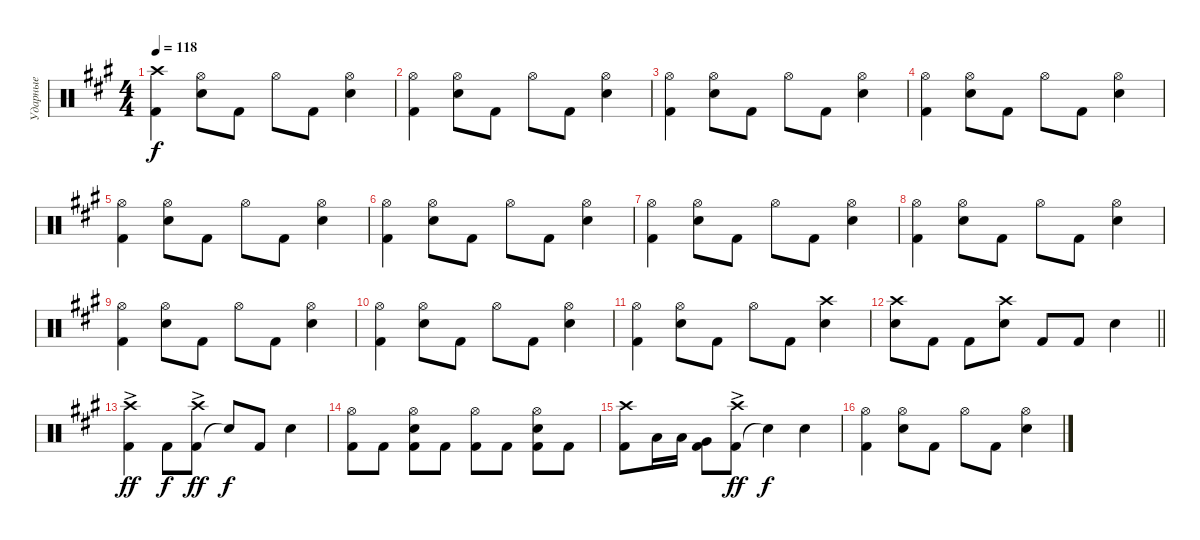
\track ("Ударные" "Ударные") {instrument percussion}
\staff {score}
\articulation defaults
\ts (4 4)
\tempo 118
\clef neutral
\ks a
("Kick (hit) 2" "Crash high (hit)").4{dy f} ("Snare (hit) 2" "Hi-Hat (open)").8 "Kick (hit) 2".8 "Hi-Hat (open)".8 "Kick (hit) 2".8 ("Snare (hit) 2" "Hi-Hat (open)").4 |
("Kick (hit) 2" "Hi-Hat (open)").4 ("Snare (hit) 2" "Hi-Hat (open)").8 "Kick (hit) 2".8 "Hi-Hat (open)".8 "Kick (hit) 2".8 ("Snare (hit) 2" "Hi-Hat (open)").4 |
("Kick (hit) 2" "Hi-Hat (open)").4 ("Snare (hit) 2" "Hi-Hat (open)").8 "Kick (hit) 2".8 "Hi-Hat (open)".8 "Kick (hit) 2".8 ("Snare (hit) 2" "Hi-Hat (open)").4 |
("Kick (hit) 2" "Hi-Hat (open)").4 ("Snare (hit) 2" "Hi-Hat (open)").8 "Kick (hit) 2".8 "Hi-Hat (open)".8 "Kick (hit) 2".8 ("Snare (hit) 2" "Hi-Hat (open)").4 |
("Kick (hit) 2" "Hi-Hat (open)").4 ("Snare (hit) 2" "Hi-Hat (open)").8 "Kick (hit) 2".8 "Hi-Hat (open)".8 "Kick (hit) 2".8 ("Snare (hit) 2" "Hi-Hat (open)").4 |
("Kick (hit) 2" "Hi-Hat (open)").4 ("Snare (hit) 2" "Hi-Hat (open)").8 "Kick (hit) 2".8 "Hi-Hat (open)".8 "Kick (hit) 2".8 ("Snare (hit) 2" "Hi-Hat (open)").4 |
("Kick (hit) 2" "Hi-Hat (open)").4 ("Snare (hit) 2" "Hi-Hat (open)").8 "Kick (hit) 2".8 "Hi-Hat (open)".8 "Kick (hit) 2".8 ("Snare (hit) 2" "Hi-Hat (open)").4 |
("Kick (hit) 2" "Hi-Hat (open)").4 ("Snare (hit) 2" "Hi-Hat (open)").8 "Kick (hit) 2".8 "Hi-Hat (open)".8 "Kick (hit) 2".8 ("Snare (hit) 2" "Hi-Hat (open)").4 |
("Kick (hit) 2" "Hi-Hat (open)").4 ("Snare (hit) 2" "Hi-Hat (open)").8 "Kick (hit) 2".8 "Hi-Hat (open)".8 "Kick (hit) 2".8 ("Snare (hit) 2" "Hi-Hat (open)").4 |
("Kick (hit) 2" "Hi-Hat (open)").4 ("Snare (hit) 2" "Hi-Hat (open)").8 "Kick (hit) 2".8 "Hi-Hat (open)".8 "Kick (hit) 2".8 ("Snare (hit) 2" "Hi-Hat (open)").4 |
("Kick (hit) 2" "Hi-Hat (open)").4 ("Snare (hit) 2" "Hi-Hat (open)").8 "Kick (hit) 2".8 "Hi-Hat (open)".8 "Kick (hit) 2".8 ("Snare (hit) 2" "Crash high (hit)").4 |
\barLineRight lightlight
("Snare (hit) 2" "Crash high (hit)").8 "Kick (hit) 2".8 "Kick (hit) 2".8 ("Snare (hit) 2" "Crash high (hit)").8 "Kick (hit) 2".8 "Kick (hit) 2".8 "Snare (hit) 2".4 |
("Kick (hit) 2" "Crash high (hit)"{ac}).4{dy ff} "Kick (hit) 2".8{dy f} ("Kick (hit) 2" "Crash high (hit)"{ac}).8{dy ff} "Snare (hit)"{t}.8{dy f} "Kick (hit) 2".8 "Snare (hit) 2".4 |
("Kick (hit) 2" "Hi-Hat (open)").8 "Kick (hit) 2".8 ("Kick (hit) 2" "Snare (hit) 2" "Hi-Hat (open)").8 "Kick (hit) 2".8 ("Kick (hit) 2" "Hi-Hat (open)").8 "Kick (hit) 2".8 ("Kick (hit) 2" "Snare (hit) 2" "Hi-Hat (open)").8 "Kick (hit) 2".8 |
("Kick (hit) 2" "Crash high (hit)").8 "Low Tom (hit)".16 "Low Tom (hit)".16 ("Kick (hit) 2" "Very Low Tom (hit)").8 ("Kick (hit) 2" "Crash high (hit)"{ac}).8{dy ff} "Snare (hit)"{t}.4{dy f} "Snare (hit) 2".4 |
("Kick (hit) 2" "Hi-Hat (open)").4 ("Snare (hit) 2" "Hi-Hat (open)").8 "Kick (hit) 2".8 "Hi-Hat (open)".8 "Kick (hit) 2".8 ("Snare (hit) 2" "Hi-Hat (open)").4
